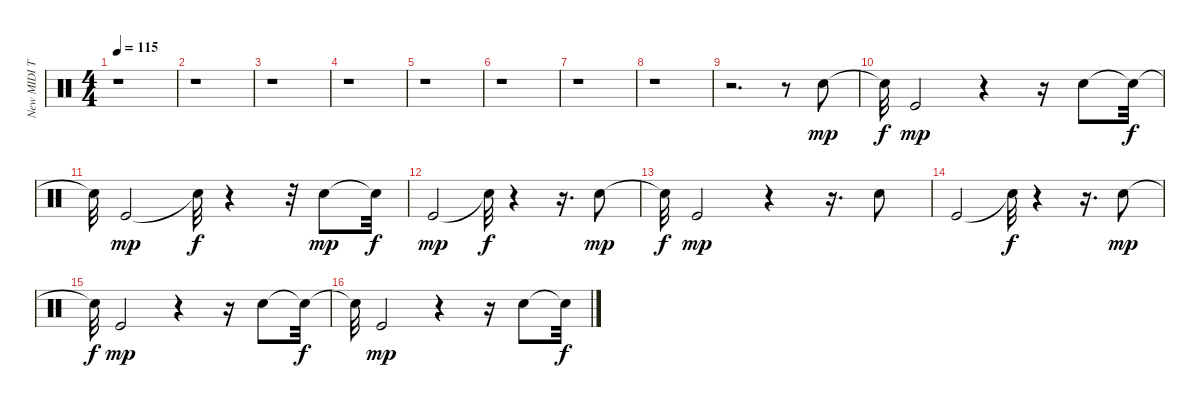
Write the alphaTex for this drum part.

\track ("New MIDI Track" "New MIDI T") {instrument percussion}
\staff {score}
\articulation defaults
\ts (4 4)
\tempo 115
\clef neutral
\ks c
r.1{dy mp} |
r.1 |
r.1 |
r.1 |
r.1 |
r.1 |
r.1 |
r.1 |
r.2{d} r.8 "Snare (hit)".8 |
"Snare (hit)"{t}.32{dy f} "Kick (hit)".2{dy mp} r.4 r.16 "Snare (hit)".8 "Snare (hit)"{t}.32{dy f} |
"Snare (hit)"{t}.32 "Kick (hit)".2{dy mp} "Snare (hit)"{t}.32{dy f} r.4 r.32 "Snare (hit)".8{dy mp} "Snare (hit)"{t}.32{dy f} |
"Kick (hit)".2{dy mp} "Snare (hit)"{t}.32{dy f} r.4 r.16{d} "Snare (hit)".8{dy mp} |
"Snare (hit)"{t}.32{dy f} "Kick (hit)".2{dy mp} r.4 r.16{d} "Snare (hit)".8 |
"Kick (hit)".2 "Snare (hit)"{t}.32{dy f} r.4 r.16{d} "Snare (hit)".8{dy mp} |
"Snare (hit)"{t}.32{dy f} "Kick (hit)".2{dy mp} r.4 r.16 "Snare (hit)".8 "Snare (hit)"{t}.32{dy f} |
"Snare (hit)"{t}.32 "Kick (hit)".2{dy mp} r.4 r.16 "Snare (hit)".8 "Snare (hit)"{t}.32{dy f}
